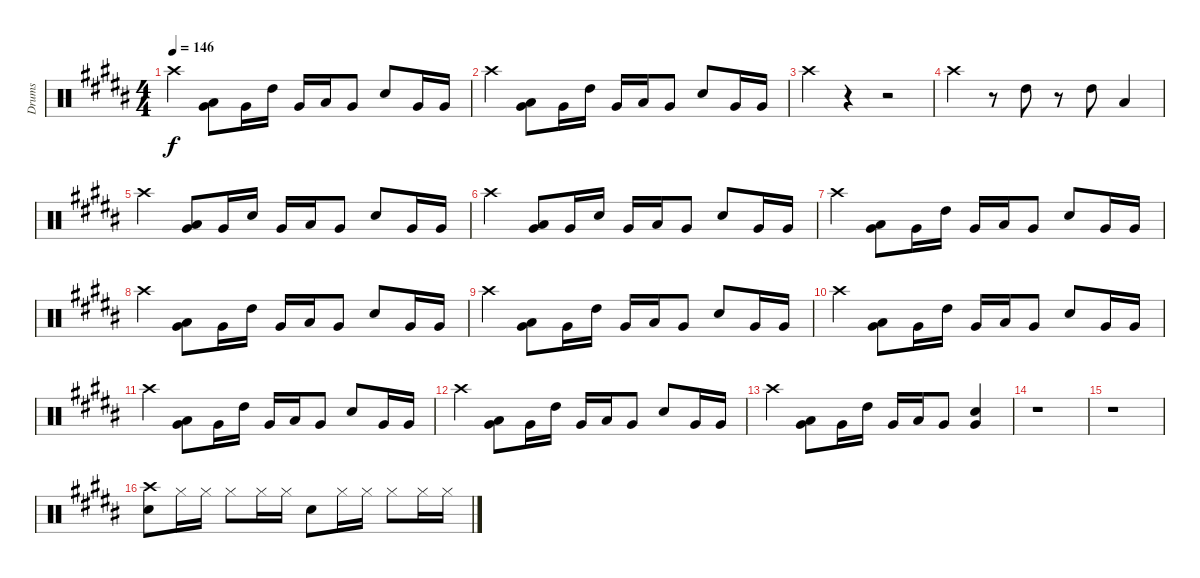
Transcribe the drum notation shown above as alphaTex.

\track ("Drums" "Drums") {instrument percussion}
\staff {score}
\articulation defaults
\ts (4 4)
\tempo 146
\clef neutral
\ks b "Crash high (hit)".4{dy f}
("Low Tom (hit)" "Very Low Tom (hit)").8 "Very Low Tom (hit)".16 "High Tom (hit)".16 "Very Low Tom (hit)".16 "Low Tom (hit)".16 "Very Low Tom (hit)".8 "Snare (hit) 2".8 "Very Low Tom (hit)".16 "Very Low Tom (hit)".16 |
"Crash high (hit)".4 ("Low Tom (hit)" "Very Low Tom (hit)").8 "Very Low Tom (hit)".16 "High Tom (hit)".16 "Very Low Tom (hit)".16 "Low Tom (hit)".16 "Very Low Tom (hit)".8 "Snare (hit) 2".8 "Very Low Tom (hit)".16 "Very Low Tom (hit)".16 |
"Crash high (hit)".4 r.4 r.2 |
"Crash high (hit)".4 r.8 "High Tom (hit)".8 r.8 "High Tom (hit)".8 "Low Tom (hit)".4 |
"Crash high (hit)".4 ("Low Tom (hit)" "Very Low Tom (hit)").8 "Very Low Tom (hit)".16 "Snare (hit) 2".16 "Very Low Tom (hit)".16 "Low Tom (hit)".16 "Very Low Tom (hit)".8 "Snare (hit) 2".8 "Very Low Tom (hit)".16 "Very Low Tom (hit)".16 |
"Crash high (hit)".4 ("Low Tom (hit)" "Very Low Tom (hit)").8 "Very Low Tom (hit)".16 "Snare (hit) 2".16 "Very Low Tom (hit)".16 "Low Tom (hit)".16 "Very Low Tom (hit)".8 "Snare (hit) 2".8 "Very Low Tom (hit)".16 "Very Low Tom (hit)".16 |
"Crash high (hit)".4 ("Low Tom (hit)" "Very Low Tom (hit)").8 "Very Low Tom (hit)".16 "High Tom (hit)".16 "Very Low Tom (hit)".16 "Low Tom (hit)".16 "Very Low Tom (hit)".8 "Snare (hit) 2".8 "Very Low Tom (hit)".16 "Very Low Tom (hit)".16 |
"Crash high (hit)".4 ("Low Tom (hit)" "Very Low Tom (hit)").8 "Very Low Tom (hit)".16 "High Tom (hit)".16 "Very Low Tom (hit)".16 "Low Tom (hit)".16 "Very Low Tom (hit)".8 "Snare (hit) 2".8 "Very Low Tom (hit)".16 "Very Low Tom (hit)".16 |
"Crash high (hit)".4 ("Low Tom (hit)" "Very Low Tom (hit)").8 "Very Low Tom (hit)".16 "High Tom (hit)".16 "Very Low Tom (hit)".16 "Low Tom (hit)".16 "Very Low Tom (hit)".8 "Snare (hit) 2".8 "Very Low Tom (hit)".16 "Very Low Tom (hit)".16 |
"Crash high (hit)".4 ("Low Tom (hit)" "Very Low Tom (hit)").8 "Very Low Tom (hit)".16 "High Tom (hit)".16 "Very Low Tom (hit)".16 "Low Tom (hit)".16 "Very Low Tom (hit)".8 "Snare (hit) 2".8 "Very Low Tom (hit)".16 "Very Low Tom (hit)".16 |
"Crash high (hit)".4 ("Low Tom (hit)" "Very Low Tom (hit)").8 "Very Low Tom (hit)".16 "High Tom (hit)".16 "Very Low Tom (hit)".16 "Low Tom (hit)".16 "Very Low Tom (hit)".8 "Snare (hit) 2".8 "Very Low Tom (hit)".16 "Very Low Tom (hit)".16 |
"Crash high (hit)".4 ("Low Tom (hit)" "Very Low Tom (hit)").8 "Very Low Tom (hit)".16 "High Tom (hit)".16 "Very Low Tom (hit)".16 "Low Tom (hit)".16 "Very Low Tom (hit)".8 "Snare (hit) 2".8 "Very Low Tom (hit)".16 "Very Low Tom (hit)".16 |
"Crash high (hit)".4 ("Low Tom (hit)" "Very Low Tom (hit)").8 "Very Low Tom (hit)".16 "High Tom (hit)".16 "Very Low Tom (hit)".16 "Low Tom (hit)".16 "Very Low Tom (hit)".8 ("Snare (hit) 2" "Very Low Tom (hit)").4 |
r.1 |
r.1 |
("Crash high (hit)" "Snare (hit) 2").8 "Hi-Hat (closed)".16 "Hi-Hat (closed)".16 "Hi-Hat (closed)".8 "Hi-Hat (closed)".16 "Hi-Hat (closed)".16 "Snare (hit) 2".8 "Hi-Hat (closed)".16 "Hi-Hat (closed)".16 "Hi-Hat (closed)".8 "Hi-Hat (closed)".16 "Hi-Hat (closed)".16
